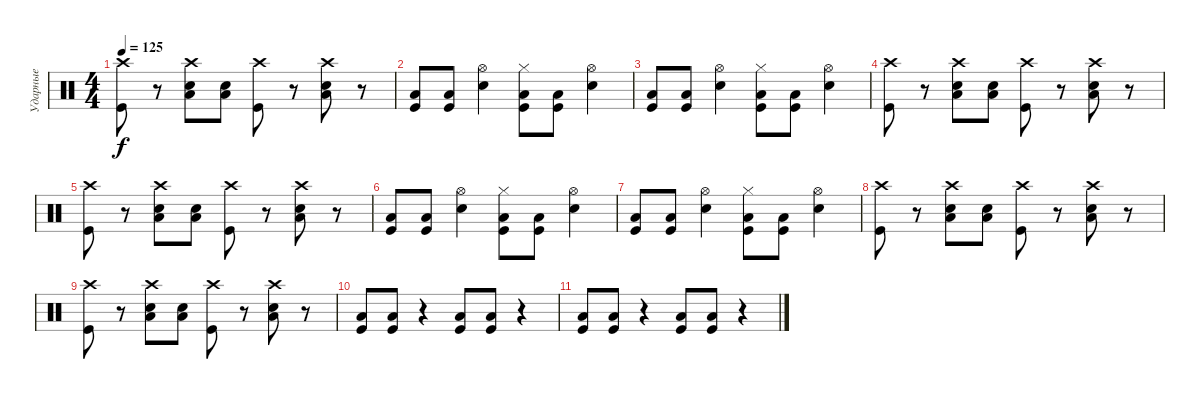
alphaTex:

\track ("Ударные" "Ударные") {instrument percussion}
\staff {score}
\articulation defaults
\ts (4 4)
\tempo 125
\clef neutral
\ks c
("Crash high (hit)" "Kick (hit)").8{dy f} r.8 ("Crash high (hit)" "Electric Snare (hit)" "Low Tom (hit)").8 ("Electric Snare (hit)" "Low Tom (hit)").8 ("Crash high (hit)" "Kick (hit)").8 r.8 ("Crash high (hit)" "Electric Snare (hit)" "Low Tom (hit)").8 r.8 |
("Low Tom (hit)" "Kick (hit)").8 ("Low Tom (hit)" "Kick (hit)").8 ("Hi-Hat (open)" "Electric Snare (hit)").4 ("Hi-Hat (closed)" "Low Tom (hit)" "Kick (hit)").8 ("Low Tom (hit)" "Kick (hit)").8 ("Hi-Hat (open)" "Electric Snare (hit)").4 |
("Low Tom (hit)" "Kick (hit)").8 ("Low Tom (hit)" "Kick (hit)").8 ("Hi-Hat (open)" "Electric Snare (hit)").4 ("Hi-Hat (closed)" "Low Tom (hit)" "Kick (hit)").8 ("Low Tom (hit)" "Kick (hit)").8 ("Hi-Hat (open)" "Electric Snare (hit)").4 |
("Crash high (hit)" "Kick (hit)").8 r.8 ("Crash high (hit)" "Electric Snare (hit)" "Low Tom (hit)").8 ("Electric Snare (hit)" "Low Tom (hit)").8 ("Crash high (hit)" "Kick (hit)").8 r.8 ("Crash high (hit)" "Electric Snare (hit)" "Low Tom (hit)").8 r.8 |
("Crash high (hit)" "Kick (hit)").8 r.8 ("Crash high (hit)" "Electric Snare (hit)" "Low Tom (hit)").8 ("Electric Snare (hit)" "Low Tom (hit)").8 ("Crash high (hit)" "Kick (hit)").8 r.8 ("Crash high (hit)" "Electric Snare (hit)" "Low Tom (hit)").8 r.8 |
("Low Tom (hit)" "Kick (hit)").8 ("Low Tom (hit)" "Kick (hit)").8 ("Hi-Hat (open)" "Snare (hit) 2").4 ("Hi-Hat (closed)" "Low Tom (hit)" "Kick (hit)").8 ("Low Tom (hit)" "Kick (hit)").8 ("Hi-Hat (open)" "Snare (hit) 2").4 |
("Low Tom (hit)" "Kick (hit)").8 ("Low Tom (hit)" "Kick (hit)").8 ("Hi-Hat (open)" "Snare (hit) 2").4 ("Hi-Hat (closed)" "Low Tom (hit)" "Kick (hit)").8 ("Low Tom (hit)" "Kick (hit)").8 ("Hi-Hat (open)" "Snare (hit) 2").4 |
("Crash high (hit)" "Kick (hit)").8 r.8 ("Crash high (hit)" "Electric Snare (hit)" "Low Tom (hit)").8 ("Electric Snare (hit)" "Low Tom (hit)").8 ("Crash high (hit)" "Kick (hit)").8 r.8 ("Crash high (hit)" "Electric Snare (hit)" "Low Tom (hit)").8 r.8 |
("Crash high (hit)" "Kick (hit)").8 r.8 ("Crash high (hit)" "Electric Snare (hit)" "Low Tom (hit)").8 ("Electric Snare (hit)" "Low Tom (hit)").8 ("Crash high (hit)" "Kick (hit)").8 r.8 ("Crash high (hit)" "Electric Snare (hit)" "Low Tom (hit)").8 r.8 |
("Low Tom (hit)" "Kick (hit)").8 ("Low Tom (hit)" "Kick (hit)").8 r.4 ("Low Tom (hit)" "Kick (hit)").8 ("Low Tom (hit)" "Kick (hit)").8 r.4 |
("Low Tom (hit)" "Kick (hit)").8 ("Low Tom (hit)" "Kick (hit)").8 r.4 ("Low Tom (hit)" "Kick (hit)").8 ("Low Tom (hit)" "Kick (hit)").8 r.4
